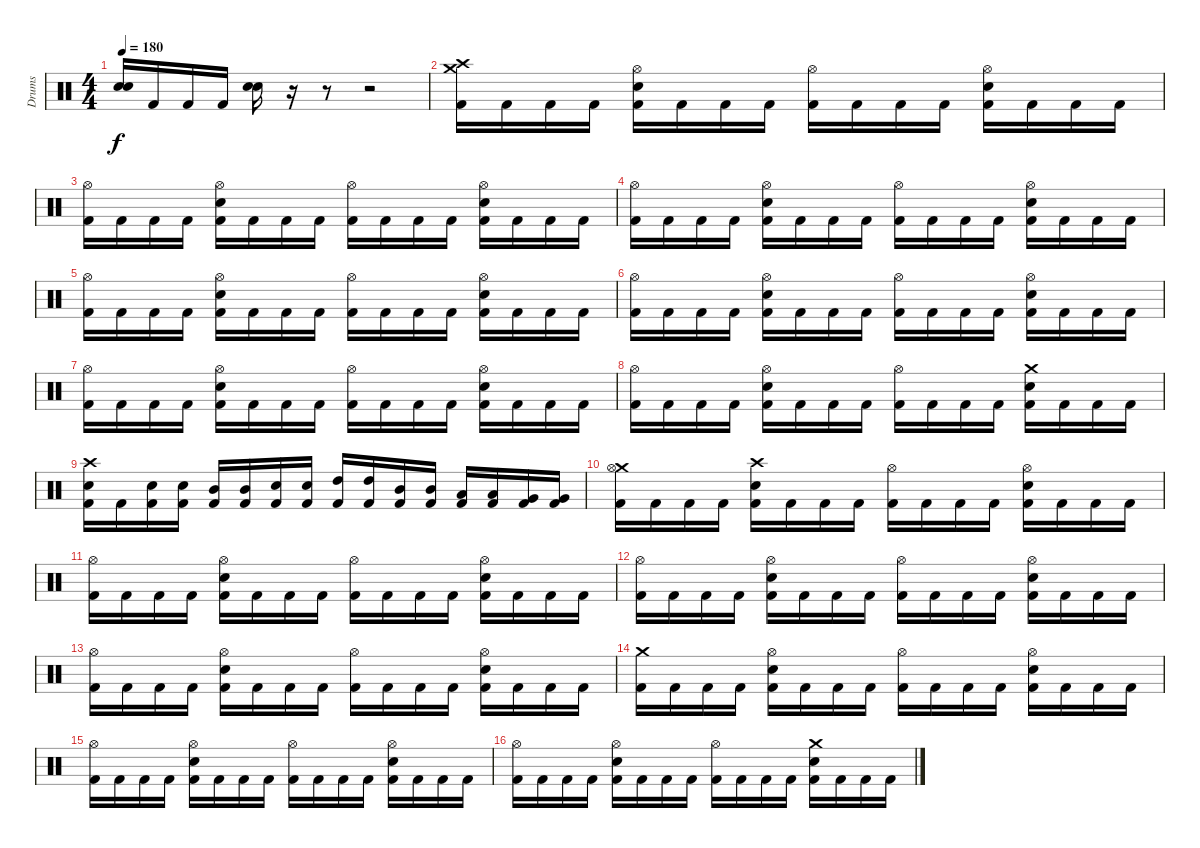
\track ("Drums" "Drums") {instrument percussion}
\staff {score}
\articulation defaults
\ts (4 4)
\tempo 180
\clef neutral
\ks c
("Snare (hit) 2" "Snare (hit) 2").16{dy f} "Kick (hit) 2".16 "Kick (hit) 2".16 "Kick (hit) 2".16 ("Snare (hit) 2" "Snare (hit) 2").16 r.16 r.8 r.2 |
("Crash medium (hit)" "Crash high (hit)" "Kick (hit) 2").16 "Kick (hit) 2".16 "Kick (hit) 2".16 "Kick (hit) 2".16 ("Hi-Hat (open)" "Snare (hit) 2" "Kick (hit) 2").16 "Kick (hit) 2".16 "Kick (hit) 2".16 "Kick (hit) 2".16 ("Hi-Hat (open)" "Kick (hit) 2").16 "Kick (hit) 2".16 "Kick (hit) 2".16 "Kick (hit) 2".16 ("Hi-Hat (open)" "Snare (hit) 2" "Kick (hit) 2").16 "Kick (hit) 2".16 "Kick (hit) 2".16 "Kick (hit) 2".16 |
("Hi-Hat (open)" "Kick (hit) 2").16 "Kick (hit) 2".16 "Kick (hit) 2".16 "Kick (hit) 2".16 ("Hi-Hat (open)" "Snare (hit) 2" "Kick (hit) 2").16 "Kick (hit) 2".16 "Kick (hit) 2".16 "Kick (hit) 2".16 ("Hi-Hat (open)" "Kick (hit) 2").16 "Kick (hit) 2".16 "Kick (hit) 2".16 "Kick (hit) 2".16 ("Hi-Hat (open)" "Snare (hit) 2" "Kick (hit) 2").16 "Kick (hit) 2".16 "Kick (hit) 2".16 "Kick (hit) 2".16 |
("Hi-Hat (open)" "Kick (hit) 2").16 "Kick (hit) 2".16 "Kick (hit) 2".16 "Kick (hit) 2".16 ("Hi-Hat (open)" "Snare (hit) 2" "Kick (hit) 2").16 "Kick (hit) 2".16 "Kick (hit) 2".16 "Kick (hit) 2".16 ("Hi-Hat (open)" "Kick (hit) 2").16 "Kick (hit) 2".16 "Kick (hit) 2".16 "Kick (hit) 2".16 ("Hi-Hat (open)" "Snare (hit) 2" "Kick (hit) 2").16 "Kick (hit) 2".16 "Kick (hit) 2".16 "Kick (hit) 2".16 |
("Hi-Hat (open)" "Kick (hit) 2").16 "Kick (hit) 2".16 "Kick (hit) 2".16 "Kick (hit) 2".16 ("Hi-Hat (open)" "Snare (hit) 2" "Kick (hit) 2").16 "Kick (hit) 2".16 "Kick (hit) 2".16 "Kick (hit) 2".16 ("Hi-Hat (open)" "Kick (hit) 2").16 "Kick (hit) 2".16 "Kick (hit) 2".16 "Kick (hit) 2".16 ("Hi-Hat (open)" "Snare (hit) 2" "Kick (hit) 2").16 "Kick (hit) 2".16 "Kick (hit) 2".16 "Kick (hit) 2".16 |
("Hi-Hat (open)" "Kick (hit) 2").16 "Kick (hit) 2".16 "Kick (hit) 2".16 "Kick (hit) 2".16 ("Hi-Hat (open)" "Snare (hit) 2" "Kick (hit) 2").16 "Kick (hit) 2".16 "Kick (hit) 2".16 "Kick (hit) 2".16 ("Hi-Hat (open)" "Kick (hit) 2").16 "Kick (hit) 2".16 "Kick (hit) 2".16 "Kick (hit) 2".16 ("Hi-Hat (open)" "Snare (hit) 2" "Kick (hit) 2").16 "Kick (hit) 2".16 "Kick (hit) 2".16 "Kick (hit) 2".16 |
("Hi-Hat (open)" "Kick (hit) 2").16 "Kick (hit) 2".16 "Kick (hit) 2".16 "Kick (hit) 2".16 ("Hi-Hat (open)" "Snare (hit) 2" "Kick (hit) 2").16 "Kick (hit) 2".16 "Kick (hit) 2".16 "Kick (hit) 2".16 ("Hi-Hat (open)" "Kick (hit) 2").16 "Kick (hit) 2".16 "Kick (hit) 2".16 "Kick (hit) 2".16 ("Hi-Hat (open)" "Snare (hit) 2" "Kick (hit) 2").16 "Kick (hit) 2".16 "Kick (hit) 2".16 "Kick (hit) 2".16 |
("Hi-Hat (open)" "Kick (hit) 2").16 "Kick (hit) 2".16 "Kick (hit) 2".16 "Kick (hit) 2".16 ("Hi-Hat (open)" "Snare (hit) 2" "Kick (hit) 2").16 "Kick (hit) 2".16 "Kick (hit) 2".16 "Kick (hit) 2".16 ("Hi-Hat (open)" "Kick (hit) 2").16 "Kick (hit) 2".16 "Kick (hit) 2".16 "Kick (hit) 2".16 ("Crash medium (hit)" "Snare (hit) 2" "Kick (hit) 2").16 "Kick (hit) 2".16 "Kick (hit) 2".16 "Kick (hit) 2".16 |
("Crash high (hit)" "Snare (hit) 2" "Kick (hit) 2").16 "Kick (hit) 2".16 ("Snare (hit) 2" "Kick (hit) 2").16 ("Snare (hit) 2" "Kick (hit) 2").16 ("Mid Tom (hit)" "Kick (hit) 2").16 ("Mid Tom (hit)" "Kick (hit) 2").16 ("Snare (hit) 2" "Kick (hit) 2").16 ("Snare (hit) 2" "Kick (hit) 2").16 ("High Tom (hit)" "Kick (hit) 2").16 ("High Tom (hit)" "Kick (hit) 2").16 ("Mid Tom (hit)" "Kick (hit) 2").16 ("Mid Tom (hit)" "Kick (hit) 2").16 ("Low Tom (hit)" "Kick (hit) 2").16 ("Low Tom (hit)" "Kick (hit) 2").16 ("Very Low Tom (hit)" "Kick (hit) 2").16 ("Very Low Tom (hit)" "Kick (hit) 2").16 |
("Crash medium (hit)" "Hi-Hat (open)" "Kick (hit) 2").16 "Kick (hit) 2".16 "Kick (hit) 2".16 "Kick (hit) 2".16 ("Crash high (hit)" "Snare (hit) 2" "Kick (hit) 2").16 "Kick (hit) 2".16 "Kick (hit) 2".16 "Kick (hit) 2".16 ("Hi-Hat (open)" "Kick (hit) 2").16 "Kick (hit) 2".16 "Kick (hit) 2".16 "Kick (hit) 2".16 ("Hi-Hat (open)" "Snare (hit) 2" "Kick (hit) 2").16 "Kick (hit) 2".16 "Kick (hit) 2".16 "Kick (hit) 2".16 |
("Hi-Hat (open)" "Kick (hit) 2").16 "Kick (hit) 2".16 "Kick (hit) 2".16 "Kick (hit) 2".16 ("Hi-Hat (open)" "Snare (hit) 2" "Kick (hit) 2").16 "Kick (hit) 2".16 "Kick (hit) 2".16 "Kick (hit) 2".16 ("Hi-Hat (open)" "Kick (hit) 2").16 "Kick (hit) 2".16 "Kick (hit) 2".16 "Kick (hit) 2".16 ("Hi-Hat (open)" "Snare (hit) 2" "Kick (hit) 2").16 "Kick (hit) 2".16 "Kick (hit) 2".16 "Kick (hit) 2".16 |
("Hi-Hat (open)" "Kick (hit) 2").16 "Kick (hit) 2".16 "Kick (hit) 2".16 "Kick (hit) 2".16 ("Hi-Hat (open)" "Snare (hit) 2" "Kick (hit) 2").16 "Kick (hit) 2".16 "Kick (hit) 2".16 "Kick (hit) 2".16 ("Hi-Hat (open)" "Kick (hit) 2").16 "Kick (hit) 2".16 "Kick (hit) 2".16 "Kick (hit) 2".16 ("Hi-Hat (open)" "Snare (hit) 2" "Kick (hit) 2").16 "Kick (hit) 2".16 "Kick (hit) 2".16 "Kick (hit) 2".16 |
("Hi-Hat (open)" "Kick (hit) 2").16 "Kick (hit) 2".16 "Kick (hit) 2".16 "Kick (hit) 2".16 ("Hi-Hat (open)" "Snare (hit) 2" "Kick (hit) 2").16 "Kick (hit) 2".16 "Kick (hit) 2".16 "Kick (hit) 2".16 ("Hi-Hat (open)" "Kick (hit) 2").16 "Kick (hit) 2".16 "Kick (hit) 2".16 "Kick (hit) 2".16 ("Hi-Hat (open)" "Snare (hit) 2" "Kick (hit) 2").16 "Kick (hit) 2".16 "Kick (hit) 2".16 "Kick (hit) 2".16 |
("Crash medium (hit)" "Kick (hit) 2").16 "Kick (hit) 2".16 "Kick (hit) 2".16 "Kick (hit) 2".16 ("Hi-Hat (open)" "Snare (hit) 2" "Kick (hit) 2").16 "Kick (hit) 2".16 "Kick (hit) 2".16 "Kick (hit) 2".16 ("Hi-Hat (open)" "Kick (hit) 2").16 "Kick (hit) 2".16 "Kick (hit) 2".16 "Kick (hit) 2".16 ("Hi-Hat (open)" "Snare (hit) 2" "Kick (hit) 2").16 "Kick (hit) 2".16 "Kick (hit) 2".16 "Kick (hit) 2".16 |
("Hi-Hat (open)" "Kick (hit) 2").16 "Kick (hit) 2".16 "Kick (hit) 2".16 "Kick (hit) 2".16 ("Hi-Hat (open)" "Snare (hit) 2" "Kick (hit) 2").16 "Kick (hit) 2".16 "Kick (hit) 2".16 "Kick (hit) 2".16 ("Hi-Hat (open)" "Kick (hit) 2").16 "Kick (hit) 2".16 "Kick (hit) 2".16 "Kick (hit) 2".16 ("Hi-Hat (open)" "Snare (hit) 2" "Kick (hit) 2").16 "Kick (hit) 2".16 "Kick (hit) 2".16 "Kick (hit) 2".16 |
("Hi-Hat (open)" "Kick (hit) 2").16 "Kick (hit) 2".16 "Kick (hit) 2".16 "Kick (hit) 2".16 ("Hi-Hat (open)" "Snare (hit) 2" "Kick (hit) 2").16 "Kick (hit) 2".16 "Kick (hit) 2".16 "Kick (hit) 2".16 ("Hi-Hat (open)" "Kick (hit) 2").16 "Kick (hit) 2".16 "Kick (hit) 2".16 "Kick (hit) 2".16 ("Crash medium (hit)" "Snare (hit) 2" "Kick (hit) 2").16 "Kick (hit) 2".16 "Kick (hit) 2".16 "Kick (hit) 2".16
